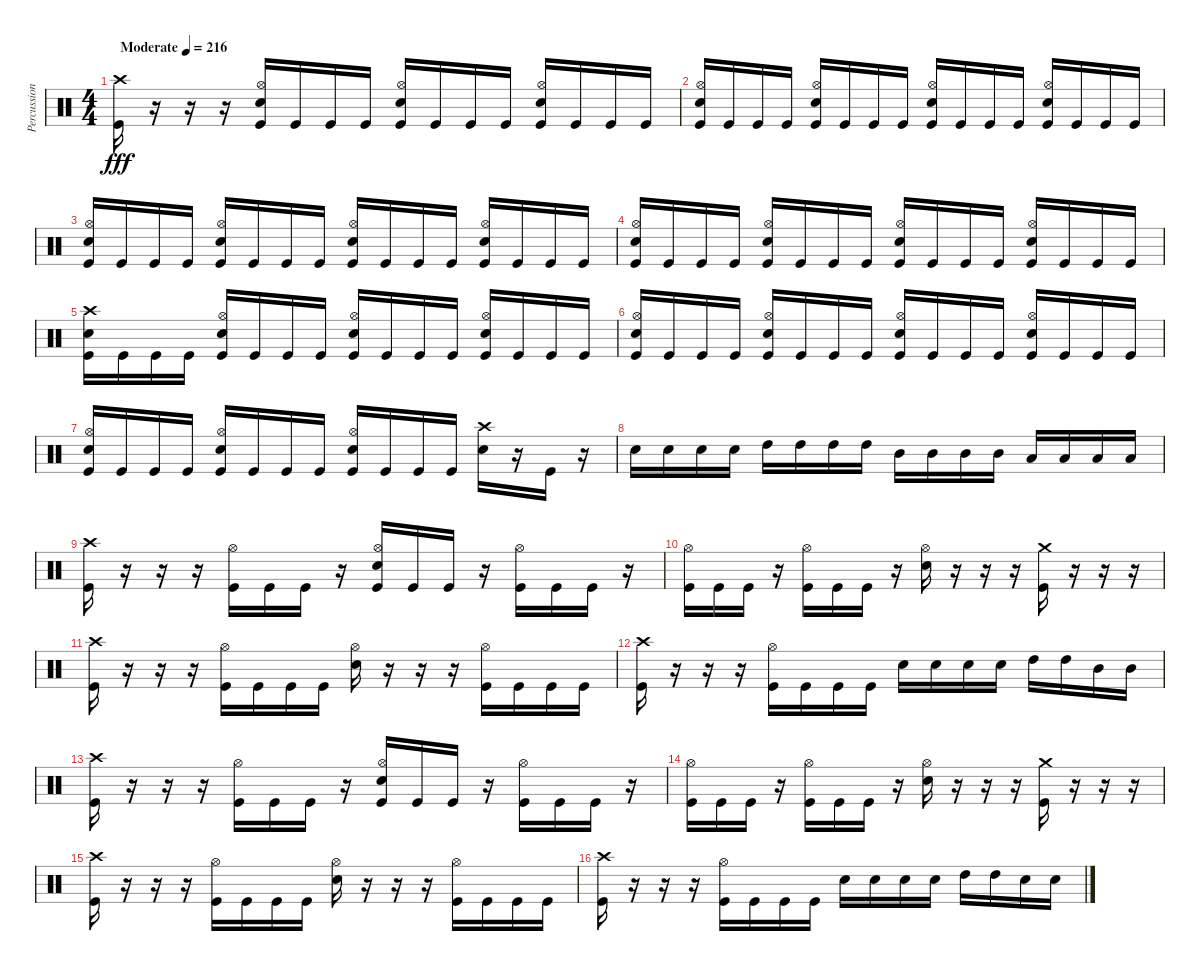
\track ("Percussion" "Percussion") {instrument percussion}
\staff {score}
\articulation defaults
\ts (4 4)
\tempo (216 "Moderate")
\clef neutral
\ks c
("Crash high (hit)" "Kick (hit)").16{dy fff} r.16 r.16 r.16 ("Hi-Hat (open)" "Electric Snare (hit)" "Kick (hit)").16 "Kick (hit)".16 "Kick (hit)".16 "Kick (hit)".16 ("Hi-Hat (open)" "Electric Snare (hit)" "Kick (hit)").16 "Kick (hit)".16 "Kick (hit)".16 "Kick (hit)".16 ("Hi-Hat (open)" "Electric Snare (hit)" "Kick (hit)").16 "Kick (hit)".16 "Kick (hit)".16 "Kick (hit)".16 |
("Hi-Hat (open)" "Electric Snare (hit)" "Kick (hit)").16 "Kick (hit)".16 "Kick (hit)".16 "Kick (hit)".16 ("Hi-Hat (open)" "Electric Snare (hit)" "Kick (hit)").16 "Kick (hit)".16 "Kick (hit)".16 "Kick (hit)".16 ("Hi-Hat (open)" "Electric Snare (hit)" "Kick (hit)").16 "Kick (hit)".16 "Kick (hit)".16 "Kick (hit)".16 ("Hi-Hat (open)" "Electric Snare (hit)" "Kick (hit)").16 "Kick (hit)".16 "Kick (hit)".16 "Kick (hit)".16 |
("Hi-Hat (open)" "Electric Snare (hit)" "Kick (hit)").16 "Kick (hit)".16 "Kick (hit)".16 "Kick (hit)".16 ("Hi-Hat (open)" "Electric Snare (hit)" "Kick (hit)").16 "Kick (hit)".16 "Kick (hit)".16 "Kick (hit)".16 ("Hi-Hat (open)" "Electric Snare (hit)" "Kick (hit)").16 "Kick (hit)".16 "Kick (hit)".16 "Kick (hit)".16 ("Hi-Hat (open)" "Electric Snare (hit)" "Kick (hit)").16 "Kick (hit)".16 "Kick (hit)".16 "Kick (hit)".16 |
("Hi-Hat (open)" "Electric Snare (hit)" "Kick (hit)").16 "Kick (hit)".16 "Kick (hit)".16 "Kick (hit)".16 ("Hi-Hat (open)" "Electric Snare (hit)" "Kick (hit)").16 "Kick (hit)".16 "Kick (hit)".16 "Kick (hit)".16 ("Hi-Hat (open)" "Electric Snare (hit)" "Kick (hit)").16 "Kick (hit)".16 "Kick (hit)".16 "Kick (hit)".16 ("Hi-Hat (open)" "Electric Snare (hit)" "Kick (hit)").16 "Kick (hit)".16 "Kick (hit)".16 "Kick (hit)".16 |
("Crash high (hit)" "Electric Snare (hit)" "Kick (hit)").16 "Kick (hit)".16 "Kick (hit)".16 "Kick (hit)".16 ("Hi-Hat (open)" "Electric Snare (hit)" "Kick (hit)").16 "Kick (hit)".16 "Kick (hit)".16 "Kick (hit)".16 ("Hi-Hat (open)" "Electric Snare (hit)" "Kick (hit)").16 "Kick (hit)".16 "Kick (hit)".16 "Kick (hit)".16 ("Hi-Hat (open)" "Electric Snare (hit)" "Kick (hit)").16 "Kick (hit)".16 "Kick (hit)".16 "Kick (hit)".16 |
("Hi-Hat (open)" "Electric Snare (hit)" "Kick (hit)").16 "Kick (hit)".16 "Kick (hit)".16 "Kick (hit)".16 ("Hi-Hat (open)" "Electric Snare (hit)" "Kick (hit)").16 "Kick (hit)".16 "Kick (hit)".16 "Kick (hit)".16 ("Hi-Hat (open)" "Electric Snare (hit)" "Kick (hit)").16 "Kick (hit)".16 "Kick (hit)".16 "Kick (hit)".16 ("Hi-Hat (open)" "Electric Snare (hit)" "Kick (hit)").16 "Kick (hit)".16 "Kick (hit)".16 "Kick (hit)".16 |
("Hi-Hat (open)" "Electric Snare (hit)" "Kick (hit)").16 "Kick (hit)".16 "Kick (hit)".16 "Kick (hit)".16 ("Hi-Hat (open)" "Electric Snare (hit)" "Kick (hit)").16 "Kick (hit)".16 "Kick (hit)".16 "Kick (hit)".16 ("Hi-Hat (open)" "Electric Snare (hit)" "Kick (hit)").16 "Kick (hit)".16 "Kick (hit)".16 "Kick (hit)".16 ("Crash high (hit)" "Electric Snare (hit)").16 r.16 "Kick (hit)".16 r.16 |
"Electric Snare (hit)".16 "Electric Snare (hit)".16 "Electric Snare (hit)".16 "Electric Snare (hit)".16 "High Tom (hit)".16 "High Tom (hit)".16 "High Tom (hit)".16 "High Tom (hit)".16 "Mid Tom (hit)".16 "Mid Tom (hit)".16 "Mid Tom (hit)".16 "Mid Tom (hit)".16 "Low Tom (hit)".16 "Low Tom (hit)".16 "Low Tom (hit)".16 "Low Tom (hit)".16 |
("Crash high (hit)" "Kick (hit)").16 r.16 r.16 r.16 ("Hi-Hat (open)" "Kick (hit)").16 "Kick (hit)".16 "Kick (hit)".16 r.16 ("Hi-Hat (open)" "Electric Snare (hit)" "Kick (hit)").16 "Kick (hit)".16 "Kick (hit)".16 r.16 ("Hi-Hat (open)" "Kick (hit)").16 "Kick (hit)".16 "Kick (hit)".16 r.16 |
("Hi-Hat (open)" "Kick (hit)").16 "Kick (hit)".16 "Kick (hit)".16 r.16 ("Hi-Hat (open)" "Kick (hit)").16 "Kick (hit)".16 "Kick (hit)".16 r.16 ("Hi-Hat (open)" "Electric Snare (hit)").16 r.16 r.16 r.16 ("Crash medium (hit)" "Kick (hit)").16 r.16 r.16 r.16 |
("Crash high (hit)" "Kick (hit)").16 r.16 r.16 r.16 ("Hi-Hat (open)" "Kick (hit)").16 "Kick (hit)".16 "Kick (hit)".16 "Kick (hit)".16 ("Hi-Hat (open)" "Electric Snare (hit)").16 r.16 r.16 r.16 ("Hi-Hat (open)" "Kick (hit)").16 "Kick (hit)".16 "Kick (hit)".16 "Kick (hit)".16 |
("Crash high (hit)" "Kick (hit)").16 r.16 r.16 r.16 ("Hi-Hat (open)" "Kick (hit)").16 "Kick (hit)".16 "Kick (hit)".16 "Kick (hit)".16 "Electric Snare (hit)".16 "Electric Snare (hit)".16 "Electric Snare (hit)".16 "Electric Snare (hit)".16 "High Tom (hit)".16 "High Tom (hit)".16 "Mid Tom (hit)".16 "Mid Tom (hit)".16 |
("Crash high (hit)" "Kick (hit)").16 r.16 r.16 r.16 ("Hi-Hat (open)" "Kick (hit)").16 "Kick (hit)".16 "Kick (hit)".16 r.16 ("Hi-Hat (open)" "Electric Snare (hit)" "Kick (hit)").16 "Kick (hit)".16 "Kick (hit)".16 r.16 ("Hi-Hat (open)" "Kick (hit)").16 "Kick (hit)".16 "Kick (hit)".16 r.16 |
("Hi-Hat (open)" "Kick (hit)").16 "Kick (hit)".16 "Kick (hit)".16 r.16 ("Hi-Hat (open)" "Kick (hit)").16 "Kick (hit)".16 "Kick (hit)".16 r.16 ("Hi-Hat (open)" "Electric Snare (hit)").16 r.16 r.16 r.16 ("Crash medium (hit)" "Kick (hit)").16 r.16 r.16 r.16 |
("Crash high (hit)" "Kick (hit)").16 r.16 r.16 r.16 ("Hi-Hat (open)" "Kick (hit)").16 "Kick (hit)".16 "Kick (hit)".16 "Kick (hit)".16 ("Hi-Hat (open)" "Electric Snare (hit)").16 r.16 r.16 r.16 ("Hi-Hat (open)" "Kick (hit)").16 "Kick (hit)".16 "Kick (hit)".16 "Kick (hit)".16 |
("Crash high (hit)" "Kick (hit)").16 r.16 r.16 r.16 ("Hi-Hat (open)" "Kick (hit)").16 "Kick (hit)".16 "Kick (hit)".16 "Kick (hit)".16 "Electric Snare (hit)".16 "Electric Snare (hit)".16 "Electric Snare (hit)".16 "Electric Snare (hit)".16 "High Tom (hit)".16 "High Tom (hit)".16 "Electric Snare (hit)".16 "Electric Snare (hit)".16
